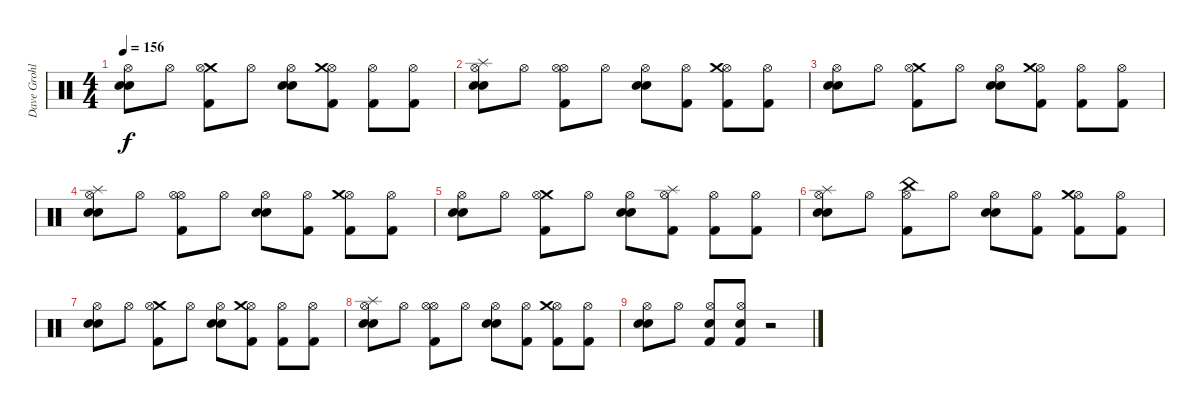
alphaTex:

\track ("Dave Grohl" "Dave Grohl") {instrument percussion}
\staff {score}
\articulation defaults
\ts (4 4)
\tempo 156
\clef neutral
\ks c
("Snare (hit) 2" "Electric Snare (hit)" "Hi-Hat (open)").8{dy f} "Hi-Hat (open)".8 ("Crash medium (hit)" "Kick (hit) 2" "Hi-Hat (open)").8 "Hi-Hat (open)".8 ("Electric Snare (hit)" "Snare (hit) 2" "Hi-Hat (open)").8 ("Kick (hit) 2" "Hi-Hat (open)" "Crash medium (hit)").8 ("Kick (hit) 2" "Hi-Hat (open)").8 ("Kick (hit) 2" "Hi-Hat (open)").8 |
("Splash (hit)" "Snare (hit) 2" "Electric Snare (hit)" "Hi-Hat (open)").8 "Hi-Hat (open)".8 ("Hi-Hat (open)" "Kick (hit) 2" "Hi-Hat (open)").8 "Hi-Hat (open)".8 ("Electric Snare (hit)" "Snare (hit) 2" "Hi-Hat (open)").8 ("Kick (hit) 2" "Hi-Hat (open)").8 ("Kick (hit) 2" "Hi-Hat (open)" "Crash medium (hit)").8 ("Kick (hit) 2" "Hi-Hat (open)").8 |
("Snare (hit) 2" "Electric Snare (hit)" "Hi-Hat (open)").8 "Hi-Hat (open)".8 ("Crash medium (hit)" "Kick (hit) 2" "Hi-Hat (open)").8 "Hi-Hat (open)".8 ("Electric Snare (hit)" "Snare (hit) 2" "Hi-Hat (open)").8 ("Kick (hit) 2" "Hi-Hat (open)" "Crash medium (hit)").8 ("Kick (hit) 2" "Hi-Hat (open)").8 ("Kick (hit) 2" "Hi-Hat (open)").8 |
("Splash (hit)" "Snare (hit) 2" "Electric Snare (hit)" "Hi-Hat (open)").8 "Hi-Hat (open)".8 ("Hi-Hat (open)" "Kick (hit) 2" "Hi-Hat (open)").8 "Hi-Hat (open)".8 ("Electric Snare (hit)" "Snare (hit) 2" "Hi-Hat (open)").8 ("Kick (hit) 2" "Hi-Hat (open)").8 ("Kick (hit) 2" "Hi-Hat (open)" "Crash medium (hit)").8 ("Kick (hit) 2" "Hi-Hat (open)").8 |
("Snare (hit) 2" "Electric Snare (hit)" "Hi-Hat (open)").8 "Hi-Hat (open)".8 ("Crash medium (hit)" "Kick (hit) 2" "Hi-Hat (open)").8 "Hi-Hat (open)".8 ("Electric Snare (hit)" "Snare (hit) 2" "Hi-Hat (open)").8 ("Kick (hit) 2" "Hi-Hat (open)" "Splash (hit)").8 ("Kick (hit) 2" "Hi-Hat (open)").8 ("Kick (hit) 2" "Hi-Hat (open)").8 |
("Splash (hit)" "Snare (hit) 2" "Electric Snare (hit)" "Hi-Hat (open)").8 "Hi-Hat (open)".8 ("China (hit)" "Kick (hit) 2" "Hi-Hat (open)").8 "Hi-Hat (open)".8 ("Electric Snare (hit)" "Snare (hit) 2" "Hi-Hat (open)").8 ("Kick (hit) 2" "Hi-Hat (open)").8 ("Kick (hit) 2" "Hi-Hat (open)" "Crash medium (hit)").8 ("Kick (hit) 2" "Hi-Hat (open)").8 |
("Snare (hit) 2" "Electric Snare (hit)" "Hi-Hat (open)").8 "Hi-Hat (open)".8 ("Crash medium (hit)" "Kick (hit) 2" "Hi-Hat (open)").8 "Hi-Hat (open)".8 ("Electric Snare (hit)" "Snare (hit) 2" "Hi-Hat (open)").8 ("Kick (hit) 2" "Hi-Hat (open)" "Crash medium (hit)").8 ("Kick (hit) 2" "Hi-Hat (open)").8 ("Kick (hit) 2" "Hi-Hat (open)").8 |
("Splash (hit)" "Snare (hit) 2" "Electric Snare (hit)" "Hi-Hat (open)").8 "Hi-Hat (open)".8 ("Hi-Hat (open)" "Kick (hit) 2" "Hi-Hat (open)").8 "Hi-Hat (open)".8 ("Electric Snare (hit)" "Snare (hit) 2" "Hi-Hat (open)").8 ("Kick (hit) 2" "Hi-Hat (open)").8 ("Kick (hit) 2" "Hi-Hat (open)" "Crash medium (hit)").8 ("Kick (hit) 2" "Hi-Hat (open)").8 |
("Snare (hit) 2" "Electric Snare (hit)" "Hi-Hat (open)").8 "Hi-Hat (open)".8 ("Kick (hit) 2" "Snare (hit) 2" "Hi-Hat (open)").8 ("Kick (hit) 2" "Snare (hit) 2" "Hi-Hat (open)").8 r.2
